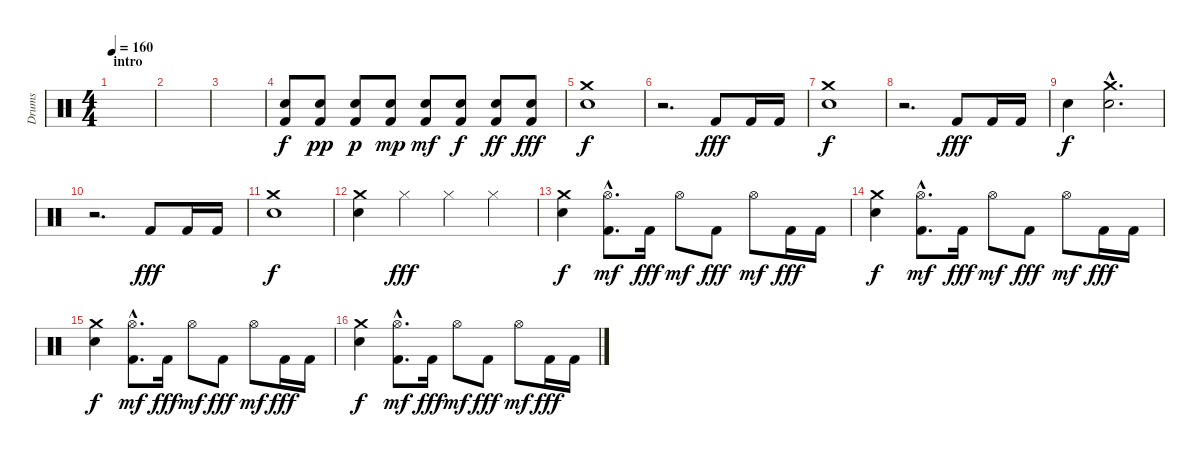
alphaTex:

\track ("Drums" "Drums") {instrument percussion}
\staff {score}
\articulation defaults
\ts (4 4)
\section ("" "intro")
\tempo 160
\clef neutral
\ks c
|
|
|
("Electric Snare (hit)" "Kick (hit) 2").8 ("Electric Snare (hit)" "Kick (hit) 2").8{dy pp} ("Electric Snare (hit)" "Kick (hit) 2").8{dy p} ("Electric Snare (hit)" "Kick (hit) 2").8{dy mp} ("Electric Snare (hit)" "Kick (hit) 2").8{dy mf} ("Electric Snare (hit)" "Kick (hit) 2").8{dy f} ("Electric Snare (hit)" "Kick (hit) 2").8{dy ff} ("Electric Snare (hit)" "Kick (hit) 2").8{dy fff} |
("Crash medium (hit)" "Electric Snare (hit)").1{dy f} |
r.2{d} "Kick (hit) 2".8{dy fff} "Kick (hit) 2".16 "Kick (hit) 2".16 |
("Crash medium (hit)" "Electric Snare (hit)").1{dy f} |
r.2{d} "Kick (hit) 2".8{dy fff} "Kick (hit) 2".16 "Kick (hit) 2".16 |
"Electric Snare (hit)".4{dy f} ("Crash medium (hit)"{hac} "Electric Snare (hit)"{hac}).2{d} |
r.2{d} "Kick (hit) 2".8{dy fff} "Kick (hit) 2".16 "Kick (hit) 2".16 |
("Crash medium (hit)" "Electric Snare (hit)").1{dy f} |
("Crash medium (hit)" "Electric Snare (hit)").4 "Hi-Hat (closed)".4{dy fff} "Hi-Hat (closed)".4 "Hi-Hat (closed)".4 |
("Crash medium (hit)" "Electric Snare (hit)").4{dy f} ("Kick (hit) 2"{hac} "Hi-Hat (open)"{hac}).8{d dy mf} "Kick (hit) 2".16{dy fff} "Hi-Hat (open)".8{dy mf} "Kick (hit) 2".8{dy fff} "Hi-Hat (open)".8{dy mf} "Kick (hit) 2".16{dy fff} "Kick (hit) 2".16 |
("Crash medium (hit)" "Electric Snare (hit)").4{dy f} ("Kick (hit) 2"{hac} "Hi-Hat (open)"{hac}).8{d dy mf} "Kick (hit) 2".16{dy fff} "Hi-Hat (open)".8{dy mf} "Kick (hit) 2".8{dy fff} "Hi-Hat (open)".8{dy mf} "Kick (hit) 2".16{dy fff} "Kick (hit) 2".16 |
("Crash medium (hit)" "Electric Snare (hit)").4{dy f} ("Kick (hit) 2"{hac} "Hi-Hat (open)"{hac}).8{d dy mf} "Kick (hit) 2".16{dy fff} "Hi-Hat (open)".8{dy mf} "Kick (hit) 2".8{dy fff} "Hi-Hat (open)".8{dy mf} "Kick (hit) 2".16{dy fff} "Kick (hit) 2".16 |
("Crash medium (hit)" "Electric Snare (hit)").4{dy f} ("Kick (hit) 2"{hac} "Hi-Hat (open)"{hac}).8{d dy mf} "Kick (hit) 2".16{dy fff} "Hi-Hat (open)".8{dy mf} "Kick (hit) 2".8{dy fff} "Hi-Hat (open)".8{dy mf} "Kick (hit) 2".16{dy fff} "Kick (hit) 2".16
